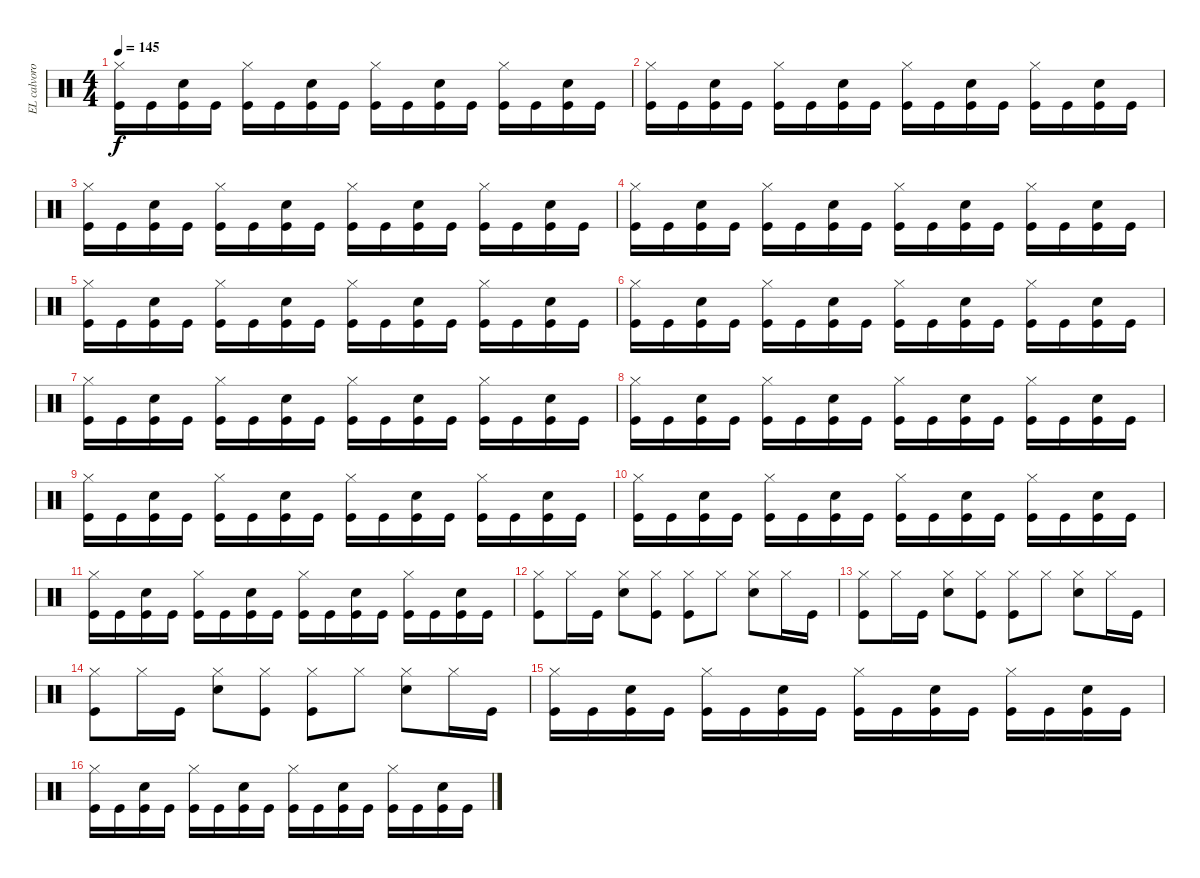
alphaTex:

\track ("EL calvorotas" "EL calvoro") {instrument percussion}
\staff {score}
\articulation defaults
\ts (4 4)
\tempo 145
\clef neutral
\ks c
("Kick (hit)" "Hi-Hat (closed)").16{dy f} "Kick (hit)".16 ("Kick (hit)" "Snare (hit) 2").16 "Kick (hit)".16 ("Kick (hit)" "Hi-Hat (closed)").16 "Kick (hit)".16 ("Kick (hit)" "Snare (hit) 2").16 "Kick (hit)".16 ("Hi-Hat (closed)" "Kick (hit)").16 "Kick (hit)".16 ("Kick (hit)" "Snare (hit) 2").16 "Kick (hit)".16 ("Hi-Hat (closed)" "Kick (hit)").16 "Kick (hit)".16 ("Kick (hit)" "Snare (hit) 2").16 "Kick (hit)".16 |
("Kick (hit)" "Hi-Hat (closed)").16 "Kick (hit)".16 ("Kick (hit)" "Snare (hit) 2").16 "Kick (hit)".16 ("Kick (hit)" "Hi-Hat (closed)").16 "Kick (hit)".16 ("Kick (hit)" "Snare (hit) 2").16 "Kick (hit)".16 ("Hi-Hat (closed)" "Kick (hit)").16 "Kick (hit)".16 ("Kick (hit)" "Snare (hit) 2").16 "Kick (hit)".16 ("Hi-Hat (closed)" "Kick (hit)").16 "Kick (hit)".16 ("Kick (hit)" "Snare (hit) 2").16 "Kick (hit)".16 |
("Kick (hit)" "Hi-Hat (closed)").16 "Kick (hit)".16 ("Kick (hit)" "Snare (hit) 2").16 "Kick (hit)".16 ("Kick (hit)" "Hi-Hat (closed)").16 "Kick (hit)".16 ("Kick (hit)" "Snare (hit) 2").16 "Kick (hit)".16 ("Hi-Hat (closed)" "Kick (hit)").16 "Kick (hit)".16 ("Kick (hit)" "Snare (hit) 2").16 "Kick (hit)".16 ("Hi-Hat (closed)" "Kick (hit)").16 "Kick (hit)".16 ("Kick (hit)" "Snare (hit) 2").16 "Kick (hit)".16 |
("Kick (hit)" "Hi-Hat (closed)").16 "Kick (hit)".16 ("Kick (hit)" "Snare (hit) 2").16 "Kick (hit)".16 ("Kick (hit)" "Hi-Hat (closed)").16 "Kick (hit)".16 ("Kick (hit)" "Snare (hit) 2").16 "Kick (hit)".16 ("Hi-Hat (closed)" "Kick (hit)").16 "Kick (hit)".16 ("Kick (hit)" "Snare (hit) 2").16 "Kick (hit)".16 ("Hi-Hat (closed)" "Kick (hit)").16 "Kick (hit)".16 ("Kick (hit)" "Snare (hit) 2").16 "Kick (hit)".16 |
("Kick (hit)" "Hi-Hat (closed)").16 "Kick (hit)".16 ("Kick (hit)" "Snare (hit) 2").16 "Kick (hit)".16 ("Kick (hit)" "Hi-Hat (closed)").16 "Kick (hit)".16 ("Kick (hit)" "Snare (hit) 2").16 "Kick (hit)".16 ("Hi-Hat (closed)" "Kick (hit)").16 "Kick (hit)".16 ("Kick (hit)" "Snare (hit) 2").16 "Kick (hit)".16 ("Hi-Hat (closed)" "Kick (hit)").16 "Kick (hit)".16 ("Kick (hit)" "Snare (hit) 2").16 "Kick (hit)".16 |
("Kick (hit)" "Hi-Hat (closed)").16 "Kick (hit)".16 ("Kick (hit)" "Snare (hit) 2").16 "Kick (hit)".16 ("Kick (hit)" "Hi-Hat (closed)").16 "Kick (hit)".16 ("Kick (hit)" "Snare (hit) 2").16 "Kick (hit)".16 ("Hi-Hat (closed)" "Kick (hit)").16 "Kick (hit)".16 ("Kick (hit)" "Snare (hit) 2").16 "Kick (hit)".16 ("Hi-Hat (closed)" "Kick (hit)").16 "Kick (hit)".16 ("Kick (hit)" "Snare (hit) 2").16 "Kick (hit)".16 |
("Kick (hit)" "Hi-Hat (closed)").16 "Kick (hit)".16 ("Kick (hit)" "Snare (hit) 2").16 "Kick (hit)".16 ("Kick (hit)" "Hi-Hat (closed)").16 "Kick (hit)".16 ("Kick (hit)" "Snare (hit) 2").16 "Kick (hit)".16 ("Hi-Hat (closed)" "Kick (hit)").16 "Kick (hit)".16 ("Kick (hit)" "Snare (hit) 2").16 "Kick (hit)".16 ("Hi-Hat (closed)" "Kick (hit)").16 "Kick (hit)".16 ("Kick (hit)" "Snare (hit) 2").16 "Kick (hit)".16 |
("Kick (hit)" "Hi-Hat (closed)").16 "Kick (hit)".16 ("Kick (hit)" "Snare (hit) 2").16 "Kick (hit)".16 ("Kick (hit)" "Hi-Hat (closed)").16 "Kick (hit)".16 ("Kick (hit)" "Snare (hit) 2").16 "Kick (hit)".16 ("Hi-Hat (closed)" "Kick (hit)").16 "Kick (hit)".16 ("Kick (hit)" "Snare (hit) 2").16 "Kick (hit)".16 ("Hi-Hat (closed)" "Kick (hit)").16 "Kick (hit)".16 ("Kick (hit)" "Snare (hit) 2").16 "Kick (hit)".16 |
("Kick (hit)" "Hi-Hat (closed)").16 "Kick (hit)".16 ("Kick (hit)" "Snare (hit) 2").16 "Kick (hit)".16 ("Kick (hit)" "Hi-Hat (closed)").16 "Kick (hit)".16 ("Kick (hit)" "Snare (hit) 2").16 "Kick (hit)".16 ("Hi-Hat (closed)" "Kick (hit)").16 "Kick (hit)".16 ("Kick (hit)" "Snare (hit) 2").16 "Kick (hit)".16 ("Hi-Hat (closed)" "Kick (hit)").16 "Kick (hit)".16 ("Kick (hit)" "Snare (hit) 2").16 "Kick (hit)".16 |
("Kick (hit)" "Hi-Hat (closed)").16 "Kick (hit)".16 ("Kick (hit)" "Snare (hit) 2").16 "Kick (hit)".16 ("Kick (hit)" "Hi-Hat (closed)").16 "Kick (hit)".16 ("Kick (hit)" "Snare (hit) 2").16 "Kick (hit)".16 ("Hi-Hat (closed)" "Kick (hit)").16 "Kick (hit)".16 ("Kick (hit)" "Snare (hit) 2").16 "Kick (hit)".16 ("Hi-Hat (closed)" "Kick (hit)").16 "Kick (hit)".16 ("Kick (hit)" "Snare (hit) 2").16 "Kick (hit)".16 |
("Kick (hit)" "Hi-Hat (closed)").16 "Kick (hit)".16 ("Kick (hit)" "Snare (hit) 2").16 "Kick (hit)".16 ("Kick (hit)" "Hi-Hat (closed)").16 "Kick (hit)".16 ("Kick (hit)" "Snare (hit) 2").16 "Kick (hit)".16 ("Hi-Hat (closed)" "Kick (hit)").16 "Kick (hit)".16 ("Kick (hit)" "Snare (hit) 2").16 "Kick (hit)".16 ("Hi-Hat (closed)" "Kick (hit)").16 "Kick (hit)".16 ("Kick (hit)" "Snare (hit) 2").16 "Kick (hit)".16 |
("Kick (hit)" "Hi-Hat (closed)").8 "Hi-Hat (closed)".16 "Kick (hit)".16 ("Snare (hit) 2" "Hi-Hat (closed)").8 ("Kick (hit)" "Hi-Hat (closed)").8 ("Hi-Hat (closed)" "Kick (hit)").8 "Hi-Hat (closed)".8 ("Snare (hit) 2" "Hi-Hat (closed)").8 "Hi-Hat (closed)".16 "Kick (hit)".16 |
("Kick (hit)" "Hi-Hat (closed)").8 "Hi-Hat (closed)".16 "Kick (hit)".16 ("Snare (hit) 2" "Hi-Hat (closed)").8 ("Kick (hit)" "Hi-Hat (closed)").8 ("Hi-Hat (closed)" "Kick (hit)").8 "Hi-Hat (closed)".8 ("Snare (hit) 2" "Hi-Hat (closed)").8 "Hi-Hat (closed)".16 "Kick (hit)".16 |
("Kick (hit)" "Hi-Hat (closed)").8 "Hi-Hat (closed)".16 "Kick (hit)".16 ("Snare (hit) 2" "Hi-Hat (closed)").8 ("Kick (hit)" "Hi-Hat (closed)").8 ("Hi-Hat (closed)" "Kick (hit)").8 "Hi-Hat (closed)".8 ("Snare (hit) 2" "Hi-Hat (closed)").8 "Hi-Hat (closed)".16 "Kick (hit)".16 |
("Kick (hit)" "Hi-Hat (closed)").16 "Kick (hit)".16 ("Kick (hit)" "Snare (hit) 2").16 "Kick (hit)".16 ("Kick (hit)" "Hi-Hat (closed)").16 "Kick (hit)".16 ("Kick (hit)" "Snare (hit) 2").16 "Kick (hit)".16 ("Hi-Hat (closed)" "Kick (hit)").16 "Kick (hit)".16 ("Kick (hit)" "Snare (hit) 2").16 "Kick (hit)".16 ("Hi-Hat (closed)" "Kick (hit)").16 "Kick (hit)".16 ("Kick (hit)" "Snare (hit) 2").16 "Kick (hit)".16 |
("Kick (hit)" "Hi-Hat (closed)").16 "Kick (hit)".16 ("Kick (hit)" "Snare (hit) 2").16 "Kick (hit)".16 ("Kick (hit)" "Hi-Hat (closed)").16 "Kick (hit)".16 ("Kick (hit)" "Snare (hit) 2").16 "Kick (hit)".16 ("Hi-Hat (closed)" "Kick (hit)").16 "Kick (hit)".16 ("Kick (hit)" "Snare (hit) 2").16 "Kick (hit)".16 ("Hi-Hat (closed)" "Kick (hit)").16 "Kick (hit)".16 ("Kick (hit)" "Snare (hit) 2").16 "Kick (hit)".16
